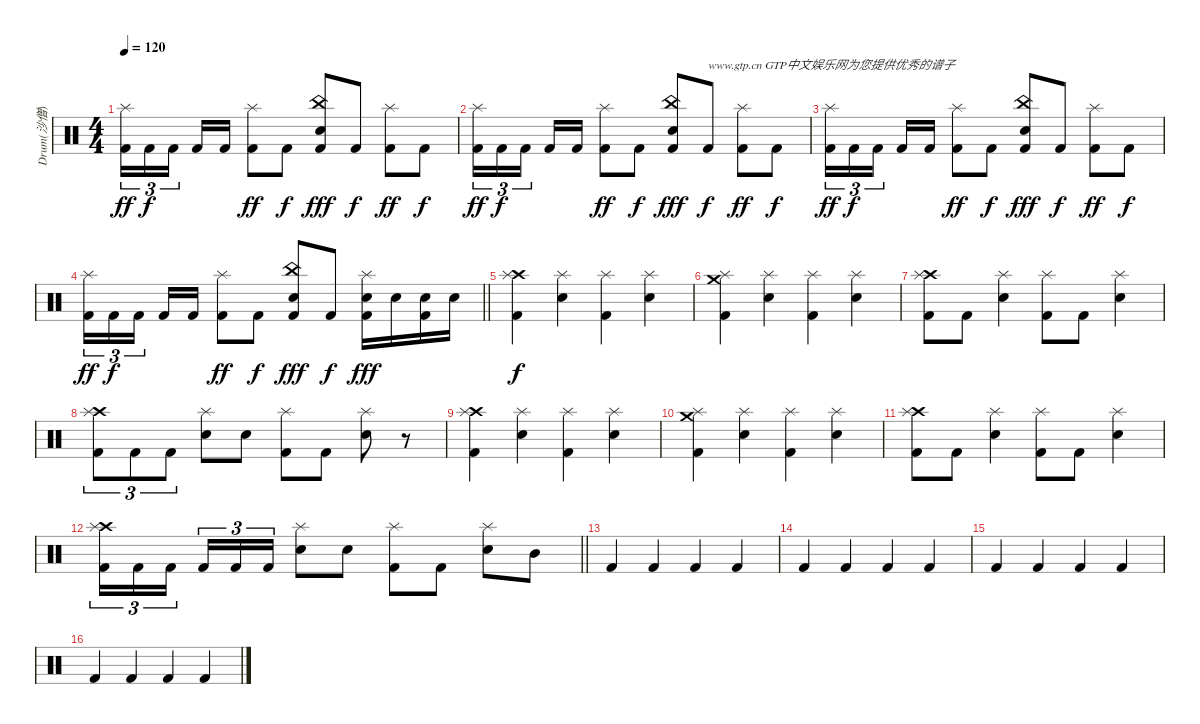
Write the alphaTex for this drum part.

\track ("Drum(沙僧)" "Drum(沙僧)") {instrument percussion}
\staff {score}
\articulation defaults
\ts (4 4)
\tempo 120
\clef neutral
\ks c
("Splash (hit)" "Kick (hit) 2").16{tu (3 2) dy ff} "Kick (hit) 2".16{tu (3 2) dy f} "Kick (hit) 2".16{tu (3 2) beam splitsecondary} "Kick (hit) 2".16 "Kick (hit) 2".16 ("Splash (hit)" "Kick (hit) 2").8{dy ff} "Kick (hit) 2".8{dy f} ("China (hit)" "Snare (hit) 2" "Kick (hit) 2").8{dy fff} "Kick (hit) 2".8{dy f} ("Splash (hit)" "Kick (hit) 2").8{dy ff} "Kick (hit) 2".8{dy f} |
("Splash (hit)" "Kick (hit) 2").16{tu (3 2) dy ff} "Kick (hit) 2".16{tu (3 2) dy f} "Kick (hit) 2".16{tu (3 2) beam splitsecondary} "Kick (hit) 2".16 "Kick (hit) 2".16 ("Splash (hit)" "Kick (hit) 2").8{dy ff} "Kick (hit) 2".8{dy f} ("China (hit)" "Snare (hit) 2" "Kick (hit) 2").8{dy fff} "Kick (hit) 2".8{txt "www.gtp.cn GTP中文娱乐网为您提供优秀的谱子" dy f} ("Splash (hit)" "Kick (hit) 2").8{dy ff} "Kick (hit) 2".8{dy f} |
("Splash (hit)" "Kick (hit) 2").16{tu (3 2) dy ff} "Kick (hit) 2".16{tu (3 2) dy f} "Kick (hit) 2".16{tu (3 2) beam splitsecondary} "Kick (hit) 2".16 "Kick (hit) 2".16 ("Splash (hit)" "Kick (hit) 2").8{dy ff} "Kick (hit) 2".8{dy f} ("China (hit)" "Snare (hit) 2" "Kick (hit) 2").8{dy fff} "Kick (hit) 2".8{dy f} ("Splash (hit)" "Kick (hit) 2").8{dy ff} "Kick (hit) 2".8{dy f} |
\barLineRight lightlight
("Splash (hit)" "Kick (hit) 2").16{tu (3 2) dy ff} "Kick (hit) 2".16{tu (3 2) dy f} "Kick (hit) 2".16{tu (3 2) beam splitsecondary} "Kick (hit) 2".16 "Kick (hit) 2".16 ("Splash (hit)" "Kick (hit) 2").8{dy ff} "Kick (hit) 2".8{dy f} ("China (hit)" "Snare (hit) 2" "Kick (hit) 2").8{dy fff} "Kick (hit) 2".8{dy f} ("Splash (hit)" "Snare (hit) 2" "Kick (hit) 2").16{dy fff} "Snare (hit) 2".16 ("Snare (hit) 2" "Kick (hit) 2").16 "Snare (hit) 2".16 |
("Crash high (hit)" "Splash (hit)" "Kick (hit) 2").4{dy f} ("Splash (hit)" "Snare (hit) 2").4 ("Splash (hit)" "Kick (hit) 2").4 ("Splash (hit)" "Snare (hit) 2").4 |
("Crash medium (hit)" "Splash (hit)" "Kick (hit) 2").4 ("Splash (hit)" "Snare (hit) 2").4 ("Splash (hit)" "Kick (hit) 2").4 ("Splash (hit)" "Snare (hit) 2").4 |
("Crash high (hit)" "Splash (hit)" "Kick (hit) 2").8 "Kick (hit) 2".8 ("Splash (hit)" "Snare (hit) 2").4 ("Splash (hit)" "Kick (hit) 2").8 "Kick (hit) 2".8 ("Splash (hit)" "Snare (hit) 2").4 |
("Crash high (hit)" "Splash (hit)" "Kick (hit) 2").8{tu (3 2)} "Kick (hit) 2".8{tu (3 2)} "Kick (hit) 2".8{tu (3 2)} ("Splash (hit)" "Snare (hit) 2").8 "Snare (hit) 2".8 ("Splash (hit)" "Kick (hit) 2").8 "Kick (hit) 2".8 ("Splash (hit)" "Snare (hit) 2").8 r.8 |
("Crash high (hit)" "Splash (hit)" "Kick (hit) 2").4 ("Splash (hit)" "Snare (hit) 2").4 ("Splash (hit)" "Kick (hit) 2").4 ("Splash (hit)" "Snare (hit) 2").4 |
("Crash medium (hit)" "Splash (hit)" "Kick (hit) 2").4 ("Splash (hit)" "Snare (hit) 2").4 ("Splash (hit)" "Kick (hit) 2").4 ("Splash (hit)" "Snare (hit) 2").4 |
("Crash high (hit)" "Splash (hit)" "Kick (hit) 2").8 "Kick (hit) 2".8 ("Splash (hit)" "Snare (hit) 2").4 ("Splash (hit)" "Kick (hit) 2").8 "Kick (hit) 2".8 ("Splash (hit)" "Snare (hit) 2").4 |
\barLineRight lightlight
("Crash high (hit)" "Splash (hit)" "Kick (hit) 2").16{tu (3 2)} "Kick (hit) 2".16{tu (3 2)} "Kick (hit) 2".16{tu (3 2) beam splitsecondary} "Kick (hit) 2".16{tu (3 2)} "Kick (hit) 2".16{tu (3 2)} "Kick (hit) 2".16{tu (3 2)} ("Splash (hit)" "Snare (hit) 2").8 "Snare (hit) 2".8 ("Splash (hit)" "Kick (hit) 2").8 "Kick (hit) 2".8 ("Splash (hit)" "Snare (hit) 2").8 "Mid Tom (hit)".8 |
"Kick (hit) 2".4 "Kick (hit) 2".4 "Kick (hit) 2".4 "Kick (hit) 2".4 |
"Kick (hit) 2".4 "Kick (hit) 2".4 "Kick (hit) 2".4 "Kick (hit) 2".4 |
"Kick (hit) 2".4 "Kick (hit) 2".4 "Kick (hit) 2".4 "Kick (hit) 2".4 |
"Kick (hit) 2".4 "Kick (hit) 2".4 "Kick (hit) 2".4 "Kick (hit) 2".4
